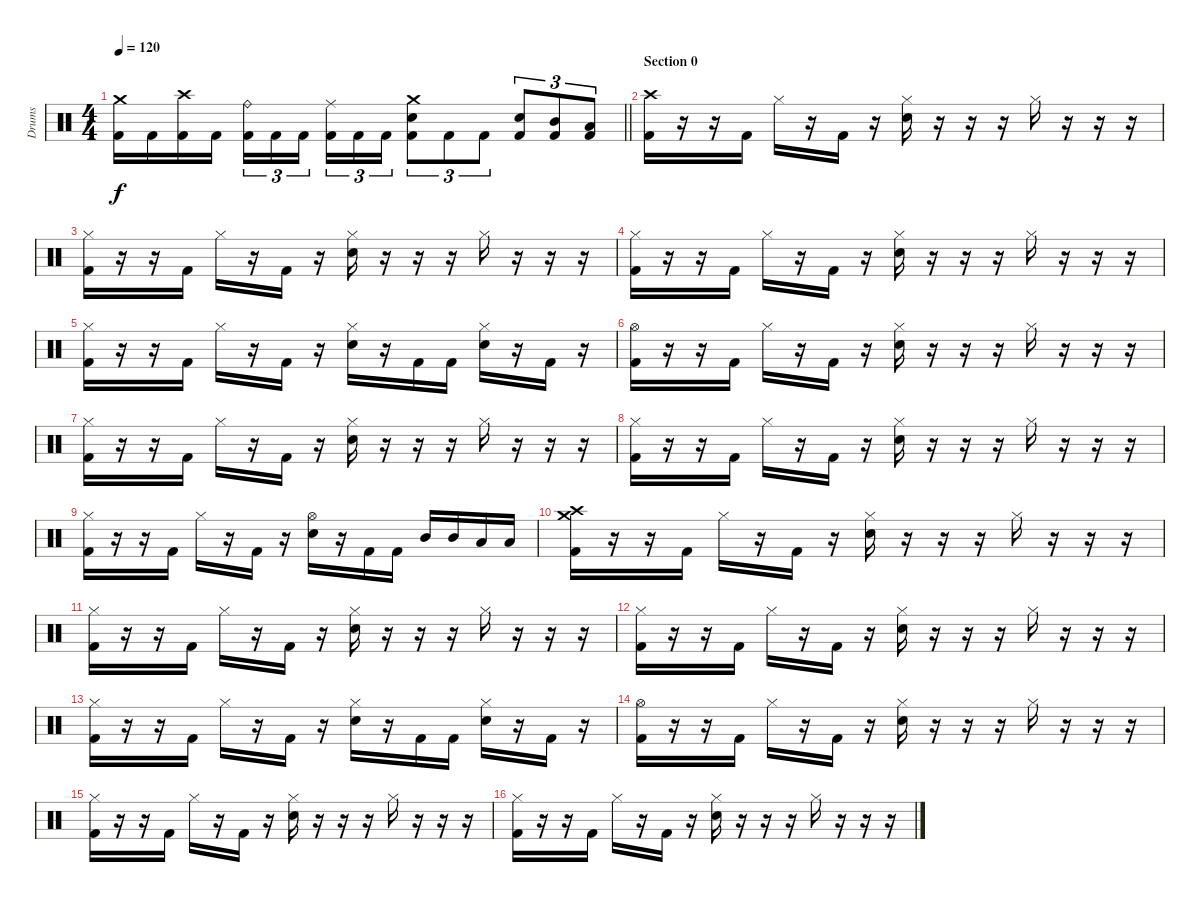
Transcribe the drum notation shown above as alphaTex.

\track ("Drums" "Drums") {instrument percussion}
\staff {score}
\articulation defaults
\ts (4 4)
\tempo 120
\clef neutral
\barLineRight lightlight
\ks c
("Crash medium (hit)" "Kick (hit) 2").16{dy f} "Kick (hit) 2".16 ("Crash high (hit)" "Kick (hit) 2").16 "Kick (hit) 2".16 ("Ride (bell)" "Kick (hit) 2").16{tu (3 2)} "Kick (hit) 2".16{tu (3 2)} "Kick (hit) 2".16{tu (3 2) beam splitsecondary} ("Ride (middle)" "Kick (hit) 2").16{tu (3 2)} "Kick (hit) 2".16{tu (3 2)} "Kick (hit) 2".16{tu (3 2)} ("Crash medium (hit)" "Snare (hit) 2" "Kick (hit) 2").8{tu (3 2)} "Kick (hit) 2".8{tu (3 2)} "Kick (hit) 2".8{tu (3 2)} ("Snare (hit) 2" "Kick (hit) 2").8{tu (3 2)} ("Mid Tom (hit)" "Kick (hit) 2").8{tu (3 2)} ("Low Tom (hit)" "Kick (hit) 2").8{tu (3 2)} |
\section ("" "Section 0")
("Crash high (hit)" "Kick (hit) 2").16 r.16 r.16 "Kick (hit) 2".16 "Hi-Hat (closed)".16 r.16 "Kick (hit) 2".16 r.16 ("Hi-Hat (closed)" "Snare (hit) 2").16 r.16 r.16 r.16 "Hi-Hat (closed)".16 r.16 r.16 r.16 |
("Hi-Hat (closed)" "Kick (hit) 2").16 r.16 r.16 "Kick (hit) 2".16 "Hi-Hat (closed)".16 r.16 "Kick (hit) 2".16 r.16 ("Hi-Hat (closed)" "Snare (hit) 2").16 r.16 r.16 r.16 "Hi-Hat (closed)".16 r.16 r.16 r.16 |
("Hi-Hat (closed)" "Kick (hit) 2").16 r.16 r.16 "Kick (hit) 2".16 "Hi-Hat (closed)".16 r.16 "Kick (hit) 2".16 r.16 ("Hi-Hat (closed)" "Snare (hit) 2").16 r.16 r.16 r.16 "Hi-Hat (closed)".16 r.16 r.16 r.16 |
("Hi-Hat (closed)" "Kick (hit) 2").16 r.16 r.16 "Kick (hit) 2".16 "Hi-Hat (closed)".16 r.16 "Kick (hit) 2".16 r.16 ("Hi-Hat (closed)" "Snare (hit) 2").16 r.16 "Kick (hit) 2".16 "Kick (hit) 2".16 ("Hi-Hat (closed)" "Snare (hit) 2").16 r.16 "Kick (hit) 2".16 r.16 |
("Hi-Hat (open)" "Kick (hit) 2").16 r.16 r.16 "Kick (hit) 2".16 "Hi-Hat (closed)".16 r.16 "Kick (hit) 2".16 r.16 ("Hi-Hat (closed)" "Snare (hit) 2").16 r.16 r.16 r.16 "Hi-Hat (closed)".16 r.16 r.16 r.16 |
("Hi-Hat (closed)" "Kick (hit) 2").16 r.16 r.16 "Kick (hit) 2".16 "Hi-Hat (closed)".16 r.16 "Kick (hit) 2".16 r.16 ("Hi-Hat (closed)" "Snare (hit) 2").16 r.16 r.16 r.16 "Hi-Hat (closed)".16 r.16 r.16 r.16 |
("Hi-Hat (closed)" "Kick (hit) 2").16 r.16 r.16 "Kick (hit) 2".16 "Hi-Hat (closed)".16 r.16 "Kick (hit) 2".16 r.16 ("Hi-Hat (closed)" "Snare (hit) 2").16 r.16 r.16 r.16 "Hi-Hat (closed)".16 r.16 r.16 r.16 |
("Hi-Hat (closed)" "Kick (hit) 2").16 r.16 r.16 "Kick (hit) 2".16 "Hi-Hat (closed)".16 r.16 "Kick (hit) 2".16 r.16 ("Hi-Hat (open)" "Snare (hit) 2").16 r.16 "Kick (hit) 2".16 "Kick (hit) 2".16 "Mid Tom (hit)".16 "Mid Tom (hit)".16 "Low Tom (hit)".16 "Low Tom (hit)".16 |
("Crash high (hit)" "Crash medium (hit)" "Kick (hit) 2").16 r.16 r.16 "Kick (hit) 2".16 "Hi-Hat (closed)".16 r.16 "Kick (hit) 2".16 r.16 ("Hi-Hat (closed)" "Snare (hit) 2").16 r.16 r.16 r.16 "Hi-Hat (closed)".16 r.16 r.16 r.16 |
("Hi-Hat (closed)" "Kick (hit) 2").16 r.16 r.16 "Kick (hit) 2".16 "Hi-Hat (closed)".16 r.16 "Kick (hit) 2".16 r.16 ("Hi-Hat (closed)" "Snare (hit) 2").16 r.16 r.16 r.16 "Hi-Hat (closed)".16 r.16 r.16 r.16 |
("Hi-Hat (closed)" "Kick (hit) 2").16 r.16 r.16 "Kick (hit) 2".16 "Hi-Hat (closed)".16 r.16 "Kick (hit) 2".16 r.16 ("Hi-Hat (closed)" "Snare (hit) 2").16 r.16 r.16 r.16 "Hi-Hat (closed)".16 r.16 r.16 r.16 |
("Hi-Hat (closed)" "Kick (hit) 2").16 r.16 r.16 "Kick (hit) 2".16 "Hi-Hat (closed)".16 r.16 "Kick (hit) 2".16 r.16 ("Hi-Hat (closed)" "Snare (hit) 2").16 r.16 "Kick (hit) 2".16 "Kick (hit) 2".16 ("Hi-Hat (closed)" "Snare (hit) 2").16 r.16 "Kick (hit) 2".16 r.16 |
("Hi-Hat (open)" "Kick (hit) 2").16 r.16 r.16 "Kick (hit) 2".16 "Hi-Hat (closed)".16 r.16 "Kick (hit) 2".16 r.16 ("Hi-Hat (closed)" "Snare (hit) 2").16 r.16 r.16 r.16 "Hi-Hat (closed)".16 r.16 r.16 r.16 |
("Hi-Hat (closed)" "Kick (hit) 2").16 r.16 r.16 "Kick (hit) 2".16 "Hi-Hat (closed)".16 r.16 "Kick (hit) 2".16 r.16 ("Hi-Hat (closed)" "Snare (hit) 2").16 r.16 r.16 r.16 "Hi-Hat (closed)".16 r.16 r.16 r.16 |
("Hi-Hat (closed)" "Kick (hit) 2").16 r.16 r.16 "Kick (hit) 2".16 "Hi-Hat (closed)".16 r.16 "Kick (hit) 2".16 r.16 ("Hi-Hat (closed)" "Snare (hit) 2").16 r.16 r.16 r.16 "Hi-Hat (closed)".16 r.16 r.16 r.16
